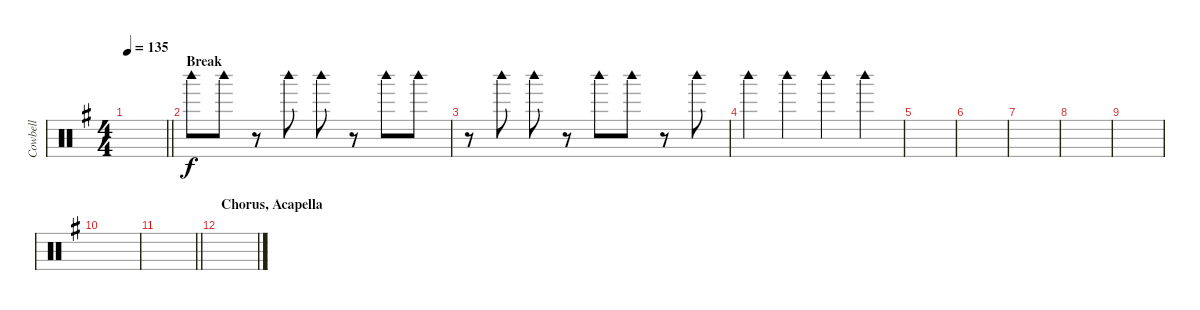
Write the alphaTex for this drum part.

\track ("Cowbell" "Cowbell") {instrument percussion}
\staff {score}
\articulation defaults
\ts (4 4)
\tempo 135
\clef neutral
\barLineRight lightlight
\ks g
|
\section ("" "Break")
"Woodblock high (hit)".8 "Woodblock high (hit)".8 r.8 "Woodblock high (hit)".8 "Woodblock high (hit)".8 r.8 "Woodblock high (hit)".8 "Woodblock high (hit)".8 |
r.8 "Woodblock high (hit)".8 "Woodblock high (hit)".8 r.8 "Woodblock high (hit)".8 "Woodblock high (hit)".8 r.8 "Woodblock high (hit)".8 |
"Woodblock high (hit)".4 "Woodblock high (hit)".4 "Woodblock high (hit)".4 "Woodblock high (hit)".4 |
|
|
|
|
|
|
\barLineRight lightlight
|
\section ("" "Chorus, Acapella")
